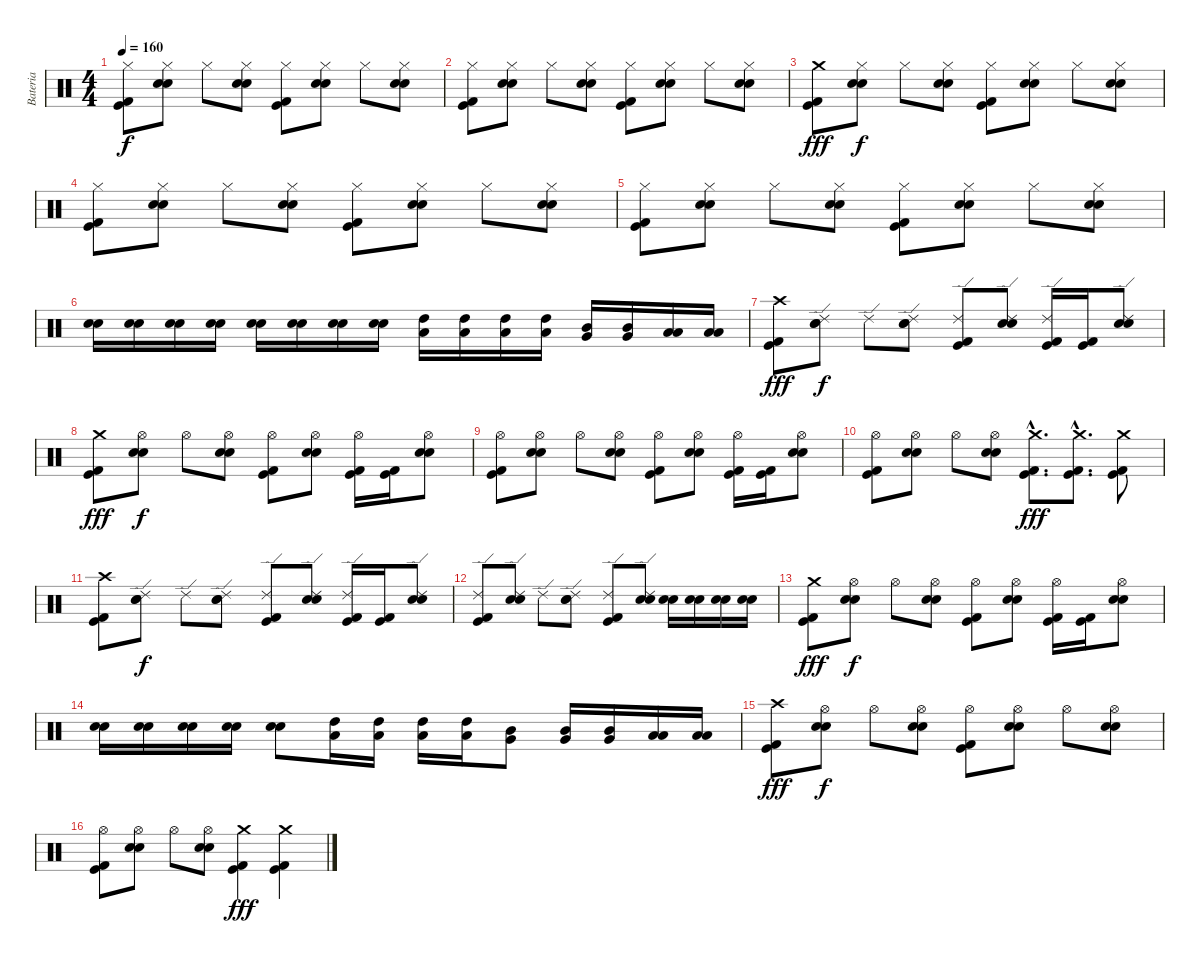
\track ("Bateria" "Bateria") {instrument percussion}
\staff {score}
\articulation defaults
\ts (4 4)
\tempo 160
\clef neutral
\ks c
("Hi-Hat (closed)" "Kick (hit) 2" "Kick (hit)").8{dy f} ("Hi-Hat (closed)" "Electric Snare (hit)" "Snare (hit) 2").8 "Hi-Hat (closed)".8 ("Hi-Hat (closed)" "Electric Snare (hit)" "Snare (hit) 2").8 ("Hi-Hat (closed)" "Kick (hit) 2" "Kick (hit)").8 ("Hi-Hat (closed)" "Electric Snare (hit)" "Snare (hit) 2").8 "Hi-Hat (closed)".8 ("Hi-Hat (closed)" "Electric Snare (hit)" "Snare (hit) 2").8 |
("Hi-Hat (closed)" "Kick (hit) 2" "Kick (hit)").8 ("Hi-Hat (closed)" "Electric Snare (hit)" "Snare (hit) 2").8 "Hi-Hat (closed)".8 ("Hi-Hat (closed)" "Electric Snare (hit)" "Snare (hit) 2").8 ("Hi-Hat (closed)" "Kick (hit) 2" "Kick (hit)").8 ("Hi-Hat (closed)" "Electric Snare (hit)" "Snare (hit) 2").8 "Hi-Hat (closed)".8 ("Hi-Hat (closed)" "Electric Snare (hit)" "Snare (hit) 2").8 |
("Crash medium (hit)" "Kick (hit) 2" "Kick (hit)").8{dy fff} ("Hi-Hat (closed)" "Electric Snare (hit)" "Snare (hit) 2").8{dy f} "Hi-Hat (closed)".8 ("Hi-Hat (closed)" "Electric Snare (hit)" "Snare (hit) 2").8 ("Hi-Hat (closed)" "Kick (hit) 2" "Kick (hit)").8 ("Hi-Hat (closed)" "Electric Snare (hit)" "Snare (hit) 2").8 "Hi-Hat (closed)".8 ("Hi-Hat (closed)" "Electric Snare (hit)" "Snare (hit) 2").8 |
("Hi-Hat (closed)" "Kick (hit) 2" "Kick (hit)").8 ("Hi-Hat (closed)" "Electric Snare (hit)" "Snare (hit) 2").8 "Hi-Hat (closed)".8 ("Hi-Hat (closed)" "Electric Snare (hit)" "Snare (hit) 2").8 ("Hi-Hat (closed)" "Kick (hit) 2" "Kick (hit)").8 ("Hi-Hat (closed)" "Electric Snare (hit)" "Snare (hit) 2").8 "Hi-Hat (closed)".8 ("Hi-Hat (closed)" "Electric Snare (hit)" "Snare (hit) 2").8 |
("Hi-Hat (closed)" "Kick (hit) 2" "Kick (hit)").8 ("Hi-Hat (closed)" "Electric Snare (hit)" "Snare (hit) 2").8 "Hi-Hat (closed)".8 ("Hi-Hat (closed)" "Electric Snare (hit)" "Snare (hit) 2").8 ("Hi-Hat (closed)" "Kick (hit) 2" "Kick (hit)").8 ("Hi-Hat (closed)" "Electric Snare (hit)" "Snare (hit) 2").8 "Hi-Hat (closed)".8 ("Hi-Hat (closed)" "Electric Snare (hit)" "Snare (hit) 2").8 |
("Electric Snare (hit)" "Snare (hit) 2").16 ("Electric Snare (hit)" "Snare (hit) 2").16 ("Electric Snare (hit)" "Snare (hit) 2").16 ("Electric Snare (hit)" "Snare (hit) 2").16 ("Electric Snare (hit)" "Snare (hit) 2").16 ("Electric Snare (hit)" "Snare (hit) 2").16 ("Electric Snare (hit)" "Snare (hit) 2").16 ("Electric Snare (hit)" "Snare (hit) 2").16 ("High Tom (hit)" "Low Tom (hit)").16 ("High Tom (hit)" "Low Tom (hit)").16 ("High Tom (hit)" "Low Tom (hit)").16 ("High Tom (hit)" "Low Tom (hit)").16 ("Mid Tom (hit)" "Very Low Tom (hit)").16 ("Mid Tom (hit)" "Very Low Tom (hit)").16 ("Low Tom (hit)" "Low Floor Tom (hit)").16 ("Low Tom (hit)" "Low Floor Tom (hit)").16 |
("Crash high (hit)" "Kick (hit) 2" "Kick (hit)").8{dy fff} ("Ride (edge) 2" "Electric Snare (hit)" "Snare (hit) 2").8{dy f} "Ride (edge) 2".8 ("Ride (edge) 2" "Electric Snare (hit)" "Snare (hit) 2").8 ("Ride (edge) 2" "Kick (hit) 2" "Kick (hit)").8 ("Ride (edge) 2" "Electric Snare (hit)" "Snare (hit) 2").8 ("Ride (edge) 2" "Kick (hit) 2" "Kick (hit)").16 ("Kick (hit) 2" "Kick (hit)").16 ("Ride (edge) 2" "Electric Snare (hit)" "Snare (hit) 2").8 |
("Crash medium (hit)" "Kick (hit) 2" "Kick (hit)").8{dy fff} ("Hi-Hat (open)" "Electric Snare (hit)" "Snare (hit) 2").8{dy f} "Hi-Hat (open)".8 ("Hi-Hat (open)" "Electric Snare (hit)" "Snare (hit) 2").8 ("Hi-Hat (open)" "Kick (hit) 2" "Kick (hit)").8 ("Hi-Hat (open)" "Electric Snare (hit)" "Snare (hit) 2").8 ("Hi-Hat (open)" "Kick (hit) 2" "Kick (hit)").16 ("Kick (hit) 2" "Kick (hit)").16 ("Hi-Hat (open)" "Electric Snare (hit)" "Snare (hit) 2").8 |
("Hi-Hat (open)" "Kick (hit) 2" "Kick (hit)").8 ("Hi-Hat (open)" "Electric Snare (hit)" "Snare (hit) 2").8 "Hi-Hat (open)".8 ("Hi-Hat (open)" "Electric Snare (hit)" "Snare (hit) 2").8 ("Hi-Hat (open)" "Kick (hit) 2" "Kick (hit)").8 ("Hi-Hat (open)" "Electric Snare (hit)" "Snare (hit) 2").8 ("Hi-Hat (open)" "Kick (hit) 2" "Kick (hit)").16 ("Kick (hit) 2" "Kick (hit)").16 ("Hi-Hat (open)" "Electric Snare (hit)" "Snare (hit) 2").8 |
("Hi-Hat (open)" "Kick (hit) 2" "Kick (hit)").8 ("Hi-Hat (open)" "Electric Snare (hit)" "Snare (hit) 2").8 "Hi-Hat (open)".8 ("Hi-Hat (open)" "Electric Snare (hit)" "Snare (hit) 2").8 ("Crash medium (hit)"{hac} "Kick (hit) 2"{hac} "Kick (hit)"{hac}).8{d dy fff} ("Crash medium (hit)"{hac} "Kick (hit) 2"{hac} "Kick (hit)"{hac}).8{d} ("Crash medium (hit)" "Kick (hit) 2" "Kick (hit)").8 |
("Crash high (hit)" "Kick (hit) 2" "Kick (hit)").8 ("Ride (edge) 2" "Electric Snare (hit)" "Snare (hit) 2").8{dy f} "Ride (edge) 2".8 ("Ride (edge) 2" "Electric Snare (hit)" "Snare (hit) 2").8 ("Ride (edge) 2" "Kick (hit) 2" "Kick (hit)").8 ("Ride (edge) 2" "Electric Snare (hit)" "Snare (hit) 2").8 ("Ride (edge) 2" "Kick (hit) 2" "Kick (hit)").16 ("Kick (hit) 2" "Kick (hit)").16 ("Ride (edge) 2" "Electric Snare (hit)" "Snare (hit) 2").8 |
("Ride (edge) 2" "Kick (hit) 2" "Kick (hit)").8 ("Ride (edge) 2" "Electric Snare (hit)" "Snare (hit) 2").8 "Ride (edge) 2".8 ("Ride (edge) 2" "Electric Snare (hit)" "Snare (hit) 2").8 ("Ride (edge) 2" "Kick (hit) 2" "Kick (hit)").8 ("Ride (edge) 2" "Electric Snare (hit)" "Snare (hit) 2").8 ("Electric Snare (hit)" "Snare (hit) 2").16 ("Electric Snare (hit)" "Snare (hit) 2").16 ("Electric Snare (hit)" "Snare (hit) 2").16 ("Electric Snare (hit)" "Snare (hit) 2").16 |
("Crash medium (hit)" "Kick (hit) 2" "Kick (hit)").8{dy fff} ("Hi-Hat (open)" "Electric Snare (hit)" "Snare (hit) 2").8{dy f} "Hi-Hat (open)".8 ("Hi-Hat (open)" "Electric Snare (hit)" "Snare (hit) 2").8 ("Hi-Hat (open)" "Kick (hit) 2" "Kick (hit)").8 ("Hi-Hat (open)" "Electric Snare (hit)" "Snare (hit) 2").8 ("Hi-Hat (open)" "Kick (hit) 2" "Kick (hit)").16 ("Kick (hit) 2" "Kick (hit)").16 ("Hi-Hat (open)" "Electric Snare (hit)" "Snare (hit) 2").8 |
("Electric Snare (hit)" "Snare (hit) 2").16 ("Electric Snare (hit)" "Snare (hit) 2").16 ("Electric Snare (hit)" "Snare (hit) 2").16 ("Electric Snare (hit)" "Snare (hit) 2").16 ("Electric Snare (hit)" "Snare (hit) 2").8 ("High Tom (hit)" "Low Tom (hit)").16 ("High Tom (hit)" "Low Tom (hit)").16 ("High Tom (hit)" "Low Tom (hit)").16 ("High Tom (hit)" "Low Tom (hit)").16 ("Mid Tom (hit)" "Very Low Tom (hit)").8 ("Mid Tom (hit)" "Very Low Tom (hit)").16 ("Mid Tom (hit)" "Very Low Tom (hit)").16 ("Low Tom (hit)" "Low Floor Tom (hit)").16 ("Low Tom (hit)" "Low Floor Tom (hit)").16 |
("Crash high (hit)" "Kick (hit) 2" "Kick (hit)").8{dy fff} ("Hi-Hat (open)" "Electric Snare (hit)" "Snare (hit) 2").8{dy f} "Hi-Hat (open)".8 ("Hi-Hat (open)" "Electric Snare (hit)" "Snare (hit) 2").8 ("Hi-Hat (open)" "Kick (hit) 2" "Kick (hit)").8 ("Hi-Hat (open)" "Electric Snare (hit)" "Snare (hit) 2").8 "Hi-Hat (open)".8 ("Hi-Hat (open)" "Electric Snare (hit)" "Snare (hit) 2").8 |
("Hi-Hat (open)" "Kick (hit) 2" "Kick (hit)").8 ("Hi-Hat (open)" "Electric Snare (hit)" "Snare (hit) 2").8 "Hi-Hat (open)".8 ("Hi-Hat (open)" "Electric Snare (hit)" "Snare (hit) 2").8 ("Crash medium (hit)" "Kick (hit) 2" "Kick (hit)").4{dy fff} ("Crash medium (hit)" "Kick (hit) 2" "Kick (hit)").4
